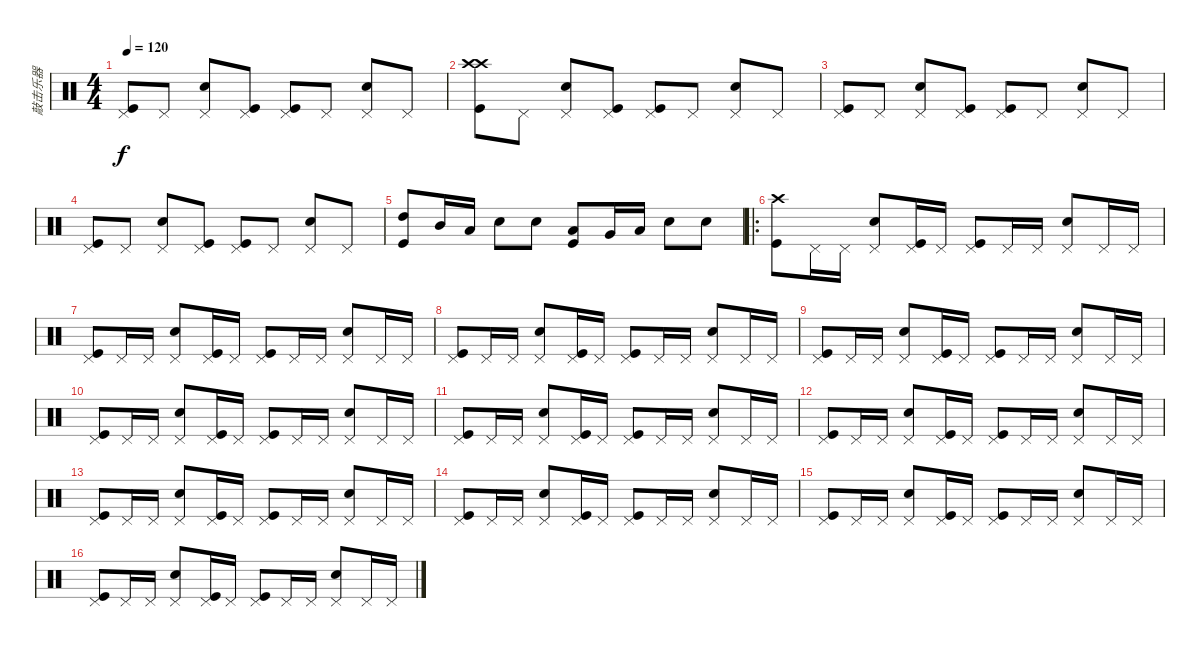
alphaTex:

\track ("敲击乐器" "敲击乐器") {instrument percussion}
\staff {score}
\articulation defaults
\ts (4 4)
\tempo 120
\clef neutral
\ks c
("Pedal Hi-Hat (hit)" "Kick (hit)").8{dy f} "Pedal Hi-Hat (hit)".8 ("Pedal Hi-Hat (hit)" "Metronome (bell)").8 ("Pedal Hi-Hat (hit)" "Kick (hit)").8 ("Pedal Hi-Hat (hit)" "Kick (hit)").8 "Pedal Hi-Hat (hit)".8 ("Pedal Hi-Hat (hit)" "Metronome (bell)").8 "Pedal Hi-Hat (hit)".8 |
("Crash high (hit)" "Crash high (hit)" "Kick (hit)").8 "Pedal Hi-Hat (hit)".8 ("Pedal Hi-Hat (hit)" "Metronome (bell)").8 ("Pedal Hi-Hat (hit)" "Kick (hit)").8 ("Pedal Hi-Hat (hit)" "Kick (hit)").8 "Pedal Hi-Hat (hit)".8 ("Pedal Hi-Hat (hit)" "Metronome (bell)").8 "Pedal Hi-Hat (hit)".8 |
("Pedal Hi-Hat (hit)" "Kick (hit)").8 "Pedal Hi-Hat (hit)".8 ("Pedal Hi-Hat (hit)" "Metronome (bell)").8 ("Pedal Hi-Hat (hit)" "Kick (hit)").8 ("Pedal Hi-Hat (hit)" "Kick (hit)").8 "Pedal Hi-Hat (hit)".8 ("Pedal Hi-Hat (hit)" "Metronome (bell)").8 "Pedal Hi-Hat (hit)".8 |
("Pedal Hi-Hat (hit)" "Kick (hit)").8 "Pedal Hi-Hat (hit)".8 ("Pedal Hi-Hat (hit)" "Metronome (bell)").8 ("Pedal Hi-Hat (hit)" "Kick (hit)").8 ("Pedal Hi-Hat (hit)" "Kick (hit)").8 "Pedal Hi-Hat (hit)".8 ("Pedal Hi-Hat (hit)" "Metronome (bell)").8 "Pedal Hi-Hat (hit)".8 |
("High Tom (hit)" "Kick (hit)").8 "Mid Tom (hit)".16 "Low Tom (hit)".16 "Metronome (bell)".8 "Metronome (bell)".8 ("Low Tom (hit)" "Kick (hit)").8 "Very Low Tom (hit)".16 "Low Floor Tom (hit)".16 "Metronome (bell)".8 "Metronome (bell)".8 |
\ro
("Crash high (hit)" "Kick (hit)").8 "Pedal Hi-Hat (hit)".16 "Pedal Hi-Hat (hit)".16 ("Pedal Hi-Hat (hit)" "Metronome (bell)").8 ("Pedal Hi-Hat (hit)" "Kick (hit)").16 "Pedal Hi-Hat (hit)".16 ("Pedal Hi-Hat (hit)" "Kick (hit)").8 "Pedal Hi-Hat (hit)".16 "Pedal Hi-Hat (hit)".16 ("Pedal Hi-Hat (hit)" "Metronome (bell)").8 "Pedal Hi-Hat (hit)".16 "Pedal Hi-Hat (hit)".16 |
("Pedal Hi-Hat (hit)" "Kick (hit)").8 "Pedal Hi-Hat (hit)".16 "Pedal Hi-Hat (hit)".16 ("Pedal Hi-Hat (hit)" "Metronome (bell)").8 ("Pedal Hi-Hat (hit)" "Kick (hit)").16 "Pedal Hi-Hat (hit)".16 ("Pedal Hi-Hat (hit)" "Kick (hit)").8 "Pedal Hi-Hat (hit)".16 "Pedal Hi-Hat (hit)".16 ("Pedal Hi-Hat (hit)" "Metronome (bell)").8 "Pedal Hi-Hat (hit)".16 "Pedal Hi-Hat (hit)".16 |
("Pedal Hi-Hat (hit)" "Kick (hit)").8 "Pedal Hi-Hat (hit)".16 "Pedal Hi-Hat (hit)".16 ("Pedal Hi-Hat (hit)" "Metronome (bell)").8 ("Pedal Hi-Hat (hit)" "Kick (hit)").16 "Pedal Hi-Hat (hit)".16 ("Pedal Hi-Hat (hit)" "Kick (hit)").8 "Pedal Hi-Hat (hit)".16 "Pedal Hi-Hat (hit)".16 ("Pedal Hi-Hat (hit)" "Metronome (bell)").8 "Pedal Hi-Hat (hit)".16 "Pedal Hi-Hat (hit)".16 |
("Pedal Hi-Hat (hit)" "Kick (hit)").8 "Pedal Hi-Hat (hit)".16 "Pedal Hi-Hat (hit)".16 ("Pedal Hi-Hat (hit)" "Metronome (bell)").8 ("Pedal Hi-Hat (hit)" "Kick (hit)").16 "Pedal Hi-Hat (hit)".16 ("Pedal Hi-Hat (hit)" "Kick (hit)").8 "Pedal Hi-Hat (hit)".16 "Pedal Hi-Hat (hit)".16 ("Pedal Hi-Hat (hit)" "Metronome (bell)").8 "Pedal Hi-Hat (hit)".16 "Pedal Hi-Hat (hit)".16 |
("Pedal Hi-Hat (hit)" "Kick (hit)").8 "Pedal Hi-Hat (hit)".16 "Pedal Hi-Hat (hit)".16 ("Pedal Hi-Hat (hit)" "Metronome (bell)").8 ("Pedal Hi-Hat (hit)" "Kick (hit)").16 "Pedal Hi-Hat (hit)".16 ("Pedal Hi-Hat (hit)" "Kick (hit)").8 "Pedal Hi-Hat (hit)".16 "Pedal Hi-Hat (hit)".16 ("Pedal Hi-Hat (hit)" "Metronome (bell)").8 "Pedal Hi-Hat (hit)".16 "Pedal Hi-Hat (hit)".16 |
("Pedal Hi-Hat (hit)" "Kick (hit)").8 "Pedal Hi-Hat (hit)".16 "Pedal Hi-Hat (hit)".16 ("Pedal Hi-Hat (hit)" "Metronome (bell)").8 ("Pedal Hi-Hat (hit)" "Kick (hit)").16 "Pedal Hi-Hat (hit)".16 ("Pedal Hi-Hat (hit)" "Kick (hit)").8 "Pedal Hi-Hat (hit)".16 "Pedal Hi-Hat (hit)".16 ("Pedal Hi-Hat (hit)" "Metronome (bell)").8 "Pedal Hi-Hat (hit)".16 "Pedal Hi-Hat (hit)".16 |
("Pedal Hi-Hat (hit)" "Kick (hit)").8 "Pedal Hi-Hat (hit)".16 "Pedal Hi-Hat (hit)".16 ("Pedal Hi-Hat (hit)" "Metronome (bell)").8 ("Pedal Hi-Hat (hit)" "Kick (hit)").16 "Pedal Hi-Hat (hit)".16 ("Pedal Hi-Hat (hit)" "Kick (hit)").8 "Pedal Hi-Hat (hit)".16 "Pedal Hi-Hat (hit)".16 ("Pedal Hi-Hat (hit)" "Metronome (bell)").8 "Pedal Hi-Hat (hit)".16 "Pedal Hi-Hat (hit)".16 |
("Pedal Hi-Hat (hit)" "Kick (hit)").8 "Pedal Hi-Hat (hit)".16 "Pedal Hi-Hat (hit)".16 ("Pedal Hi-Hat (hit)" "Metronome (bell)").8 ("Pedal Hi-Hat (hit)" "Kick (hit)").16 "Pedal Hi-Hat (hit)".16 ("Pedal Hi-Hat (hit)" "Kick (hit)").8 "Pedal Hi-Hat (hit)".16 "Pedal Hi-Hat (hit)".16 ("Pedal Hi-Hat (hit)" "Metronome (bell)").8 "Pedal Hi-Hat (hit)".16 "Pedal Hi-Hat (hit)".16 |
("Pedal Hi-Hat (hit)" "Kick (hit)").8 "Pedal Hi-Hat (hit)".16 "Pedal Hi-Hat (hit)".16 ("Pedal Hi-Hat (hit)" "Metronome (bell)").8 ("Pedal Hi-Hat (hit)" "Kick (hit)").16 "Pedal Hi-Hat (hit)".16 ("Pedal Hi-Hat (hit)" "Kick (hit)").8 "Pedal Hi-Hat (hit)".16 "Pedal Hi-Hat (hit)".16 ("Pedal Hi-Hat (hit)" "Metronome (bell)").8 "Pedal Hi-Hat (hit)".16 "Pedal Hi-Hat (hit)".16 |
("Pedal Hi-Hat (hit)" "Kick (hit)").8 "Pedal Hi-Hat (hit)".16 "Pedal Hi-Hat (hit)".16 ("Pedal Hi-Hat (hit)" "Metronome (bell)").8 ("Pedal Hi-Hat (hit)" "Kick (hit)").16 "Pedal Hi-Hat (hit)".16 ("Pedal Hi-Hat (hit)" "Kick (hit)").8 "Pedal Hi-Hat (hit)".16 "Pedal Hi-Hat (hit)".16 ("Pedal Hi-Hat (hit)" "Metronome (bell)").8 "Pedal Hi-Hat (hit)".16 "Pedal Hi-Hat (hit)".16 |
("Pedal Hi-Hat (hit)" "Kick (hit)").8 "Pedal Hi-Hat (hit)".16 "Pedal Hi-Hat (hit)".16 ("Pedal Hi-Hat (hit)" "Metronome (bell)").8 ("Pedal Hi-Hat (hit)" "Kick (hit)").16 "Pedal Hi-Hat (hit)".16 ("Pedal Hi-Hat (hit)" "Kick (hit)").8 "Pedal Hi-Hat (hit)".16 "Pedal Hi-Hat (hit)".16 ("Pedal Hi-Hat (hit)" "Metronome (bell)").8 "Pedal Hi-Hat (hit)".16 "Pedal Hi-Hat (hit)".16
